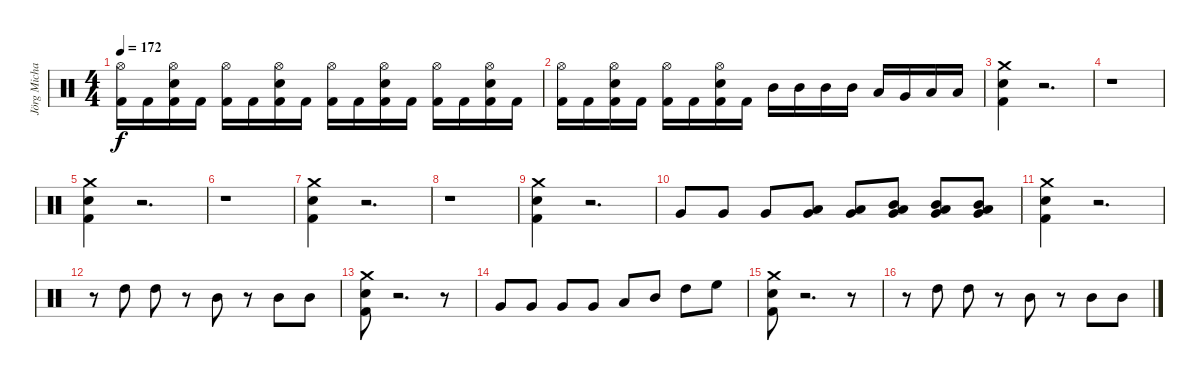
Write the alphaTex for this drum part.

\track ("Jörg Michael" "Jörg Micha") {instrument percussion}
\staff {score}
\articulation defaults
\ts (4 4)
\tempo 172
\clef neutral
\ks c
("Hi-Hat (open)" "Kick (hit) 2").16{dy f} "Kick (hit) 2".16 ("Hi-Hat (open)" "Kick (hit) 2" "Electric Snare (hit)").16 "Kick (hit) 2".16 ("Hi-Hat (open)" "Kick (hit) 2").16 "Kick (hit) 2".16 ("Hi-Hat (open)" "Kick (hit) 2" "Electric Snare (hit)").16 "Kick (hit) 2".16 ("Hi-Hat (open)" "Kick (hit) 2").16 "Kick (hit) 2".16 ("Hi-Hat (open)" "Kick (hit) 2" "Electric Snare (hit)").16 "Kick (hit) 2".16 ("Hi-Hat (open)" "Kick (hit) 2").16 "Kick (hit) 2".16 ("Hi-Hat (open)" "Kick (hit) 2" "Electric Snare (hit)").16 "Kick (hit) 2".16 |
("Hi-Hat (open)" "Kick (hit) 2").16 "Kick (hit) 2".16 ("Hi-Hat (open)" "Kick (hit) 2" "Electric Snare (hit)").16 "Kick (hit) 2".16 ("Hi-Hat (open)" "Kick (hit) 2").16 "Kick (hit) 2".16 ("Hi-Hat (open)" "Kick (hit) 2" "Electric Snare (hit)").16 "Kick (hit) 2".16 "Mid Tom (hit)".16 "Mid Tom (hit)".16 "Mid Tom (hit)".16 "Mid Tom (hit)".16 "Low Tom (hit)".16 "Very Low Tom (hit)".16 "Low Tom (hit)".16 "Low Tom (hit)".16 |
("Crash medium (hit)" "Electric Snare (hit)" "Kick (hit) 2").4 r.2{d} |
r.1 |
("Crash medium (hit)" "Electric Snare (hit)" "Kick (hit) 2").4 r.2{d} |
r.1 |
("Crash medium (hit)" "Electric Snare (hit)" "Kick (hit) 2").4 r.2{d} |
r.1 |
("Crash medium (hit)" "Electric Snare (hit)" "Kick (hit) 2").4 r.2{d} |
"Very Low Tom (hit)".8 "Very Low Tom (hit)".8 "Very Low Tom (hit)".8 ("Low Tom (hit)" "Very Low Tom (hit)").8 ("Low Tom (hit)" "Very Low Tom (hit)").8 ("Mid Tom (hit)" "Low Tom (hit)" "Very Low Tom (hit)").8 ("Mid Tom (hit)" "Low Tom (hit)" "Very Low Tom (hit)").8 ("Mid Tom (hit)" "Low Tom (hit)" "Very Low Tom (hit)").8 |
("Crash medium (hit)" "Electric Snare (hit)" "Kick (hit) 2").4 r.2{d} |
r.8 "High Tom (hit)".8 "High Tom (hit)".8 r.8 "Mid Tom (hit)".8 r.8 "Mid Tom (hit)".8 "Mid Tom (hit)".8 |
("Crash medium (hit)" "Electric Snare (hit)" "Kick (hit) 2").8 r.2{d} r.8 |
"Very Low Tom (hit)".8 "Very Low Tom (hit)".8 "Very Low Tom (hit)".8 "Very Low Tom (hit)".8 "Low Tom (hit)".8 "Mid Tom (hit)".8 "High Tom (hit)".8 "High Floor Tom (hit)".8 |
("Crash medium (hit)" "Electric Snare (hit)" "Kick (hit) 2").8 r.2{d} r.8 |
r.8 "High Tom (hit)".8 "High Tom (hit)".8 r.8 "Mid Tom (hit)".8 r.8 "Mid Tom (hit)".8 "Mid Tom (hit)".8
